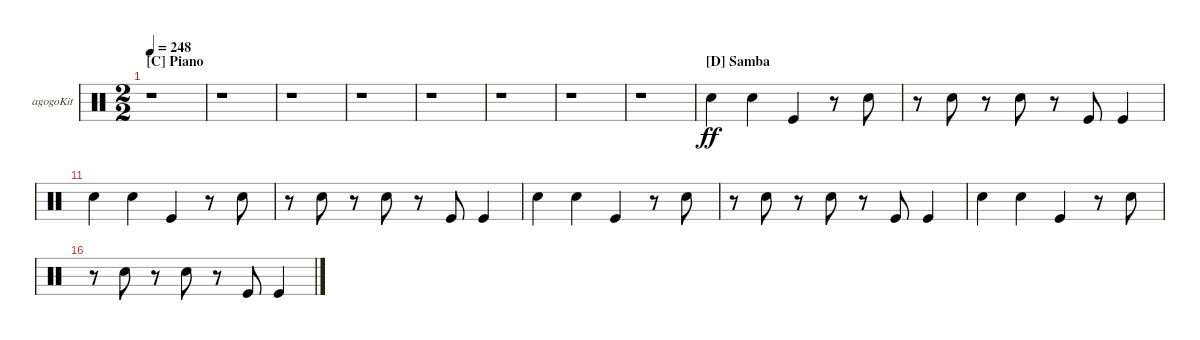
\bracketExtendMode nobrackets
\firstSystemTrackNameOrientation horizontal
\otherSystemsTrackNameOrientation horizontal
\defaultBarNumberDisplay FirstOfSystem
\track ("Agogo" "agogoKit") {instrument percussion}
\staff {score}
\articulation defaults
\ts (2 2)
\beaming (8 2 2 2 2)
\section ("C" "Piano")
\tempo 248
\clef neutral
\ks c
r.1{dy ff} |
r.1 |
r.1 |
r.1 |
\scale
0.43662 r.1 |
\scale
0.295775 r.1 |
r.1 |
r.1 |
\section ("D" "Samba")
"Snare (hit) 2".4 "Snare (hit) 2".4 "Kick (hit)".4 r.8 "Snare (hit) 2".8 |
r.8 "Snare (hit) 2".8 r.8 "Snare (hit) 2".8 r.8 "Kick (hit)".8 "Kick (hit)".4 |
"Snare (hit) 2".4 "Snare (hit) 2".4 "Kick (hit)".4 r.8 "Snare (hit) 2".8 |
r.8 "Snare (hit) 2".8 r.8 "Snare (hit) 2".8 r.8 "Kick (hit)".8 "Kick (hit)".4 |
"Snare (hit) 2".4 "Snare (hit) 2".4 "Kick (hit)".4 r.8 "Snare (hit) 2".8 |
r.8 "Snare (hit) 2".8 r.8 "Snare (hit) 2".8 r.8 "Kick (hit)".8 "Kick (hit)".4 |
"Snare (hit) 2".4 "Snare (hit) 2".4 "Kick (hit)".4 r.8 "Snare (hit) 2".8 |
r.8 "Snare (hit) 2".8 r.8 "Snare (hit) 2".8 r.8 "Kick (hit)".8 "Kick (hit)".4
